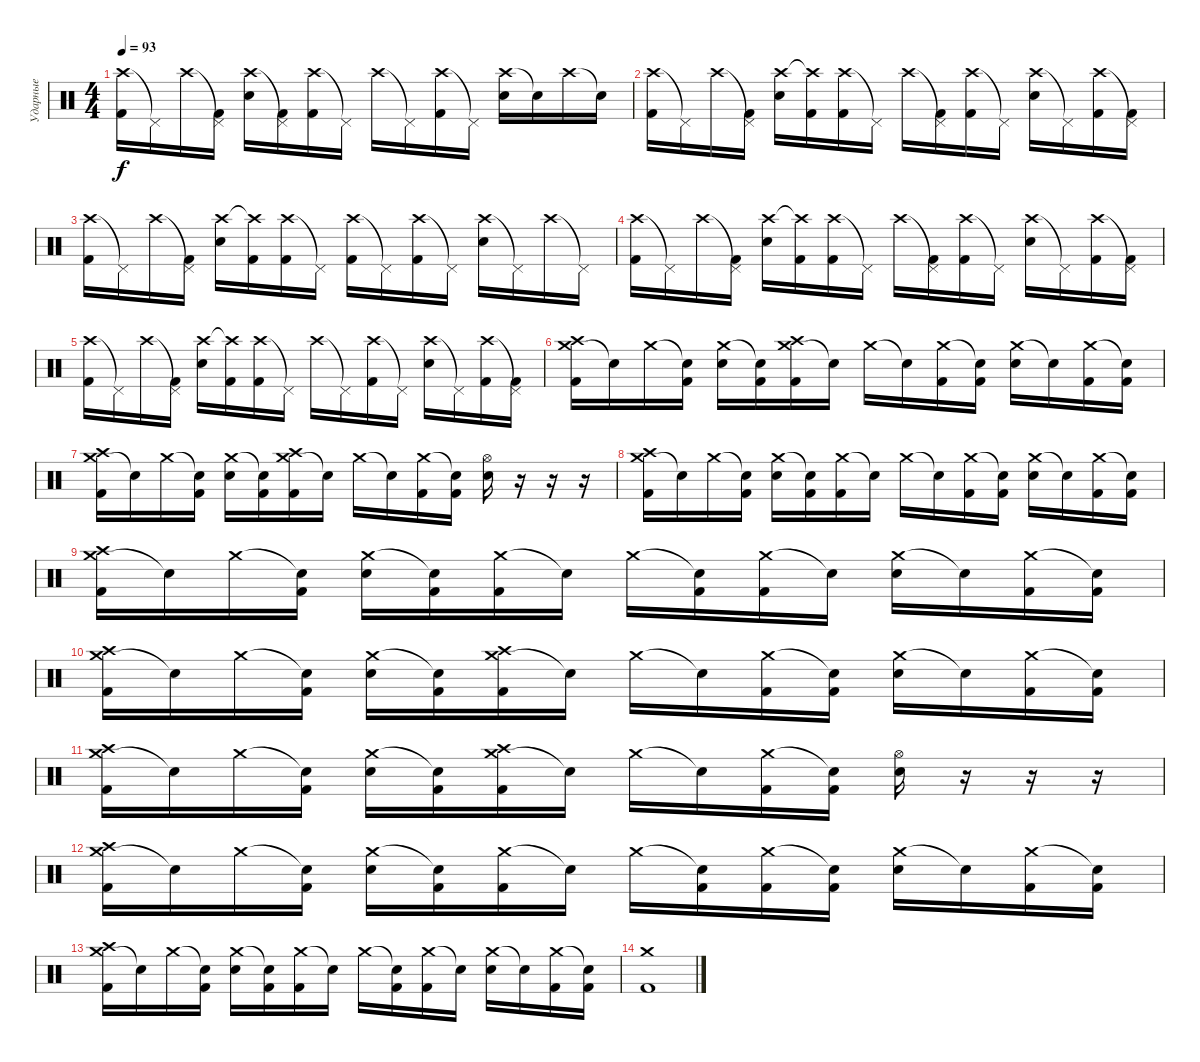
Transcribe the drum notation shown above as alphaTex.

\track ("Ударные" "Ударные") {instrument percussion}
\staff {score}
\articulation defaults
\ts (4 4)
\tempo 93
\clef neutral
\ks c
("Crash high (hit)" "Kick (hit) 2").16{dy f} "Pedal Hi-Hat (hit)"{t}.16 "Crash high (hit)".16 ("Pedal Hi-Hat (hit)"{t} "Kick (hit) 2").16 ("Crash high (hit)" "Electric Snare (hit)").16 ("Pedal Hi-Hat (hit)"{t} "Kick (hit) 2").16 ("Crash high (hit)" "Kick (hit) 2").16 "Pedal Hi-Hat (hit)"{t}.16 "Crash high (hit)".16 "Pedal Hi-Hat (hit)"{t}.16 ("Crash high (hit)" "Kick (hit) 2").16 "Pedal Hi-Hat (hit)"{t}.16 ("Crash high (hit)" "Electric Snare (hit)").16 "Snare (hit)"{t}.16 "Crash high (hit)".16 "Snare (hit)"{t}.16 |
("Crash high (hit)" "Kick (hit) 2").16 "Pedal Hi-Hat (hit)"{t}.16 "Crash high (hit)".16 ("Pedal Hi-Hat (hit)"{t} "Kick (hit) 2").16 ("Crash high (hit)" "Electric Snare (hit)").16 ("Crash high (hit)"{t} "Kick (hit) 2").16 ("Crash high (hit)" "Kick (hit) 2").16 "Pedal Hi-Hat (hit)"{t}.16 "Crash high (hit)".16 ("Pedal Hi-Hat (hit)"{t} "Kick (hit) 2").16 ("Crash high (hit)" "Kick (hit) 2").16 "Pedal Hi-Hat (hit)"{t}.16 ("Crash high (hit)" "Electric Snare (hit)").16 "Pedal Hi-Hat (hit)"{t}.16 ("Crash high (hit)" "Kick (hit) 2").16 ("Pedal Hi-Hat (hit)"{t} "Kick (hit) 2").16 |
("Crash high (hit)" "Kick (hit) 2").16 "Pedal Hi-Hat (hit)"{t}.16 "Crash high (hit)".16 ("Pedal Hi-Hat (hit)"{t} "Kick (hit) 2").16 ("Crash high (hit)" "Electric Snare (hit)").16 ("Crash high (hit)"{t} "Kick (hit) 2").16 ("Crash high (hit)" "Kick (hit) 2").16 "Pedal Hi-Hat (hit)"{t}.16 ("Crash high (hit)" "Kick (hit) 2").16 "Pedal Hi-Hat (hit)"{t}.16 ("Crash high (hit)" "Kick (hit) 2").16 "Pedal Hi-Hat (hit)"{t}.16 ("Crash high (hit)" "Electric Snare (hit)").16 "Pedal Hi-Hat (hit)"{t}.16 "Crash high (hit)".16 "Pedal Hi-Hat (hit)"{t}.16 |
("Crash high (hit)" "Kick (hit) 2").16 "Pedal Hi-Hat (hit)"{t}.16 "Crash high (hit)".16 ("Pedal Hi-Hat (hit)"{t} "Kick (hit) 2").16 ("Crash high (hit)" "Electric Snare (hit)").16 ("Crash high (hit)"{t} "Kick (hit) 2").16 ("Crash high (hit)" "Kick (hit) 2").16 "Pedal Hi-Hat (hit)"{t}.16 "Crash high (hit)".16 ("Pedal Hi-Hat (hit)"{t} "Kick (hit) 2").16 ("Crash high (hit)" "Kick (hit) 2").16 "Pedal Hi-Hat (hit)"{t}.16 ("Crash high (hit)" "Electric Snare (hit)").16 "Pedal Hi-Hat (hit)"{t}.16 ("Crash high (hit)" "Kick (hit) 2").16 ("Pedal Hi-Hat (hit)"{t} "Kick (hit) 2").16 |
("Crash high (hit)" "Kick (hit) 2").16 "Pedal Hi-Hat (hit)"{t}.16 "Crash high (hit)".16 ("Pedal Hi-Hat (hit)"{t} "Kick (hit) 2").16 ("Crash high (hit)" "Electric Snare (hit)").16 ("Crash high (hit)"{t} "Kick (hit) 2").16 ("Crash high (hit)" "Kick (hit) 2").16 "Pedal Hi-Hat (hit)"{t}.16 "Crash high (hit)".16 "Pedal Hi-Hat (hit)"{t}.16 ("Crash high (hit)" "Kick (hit) 2").16 "Pedal Hi-Hat (hit)"{t}.16 ("Crash high (hit)" "Electric Snare (hit)").16 "Pedal Hi-Hat (hit)"{t}.16 ("Crash high (hit)" "Kick (hit) 2").16 ("Pedal Hi-Hat (hit)"{t} "Kick (hit) 2").16 |
("Crash medium (hit)" "Crash high (hit)" "Kick (hit) 2").16 "Snare (hit)"{t}.16 "Crash medium (hit)".16 ("Snare (hit)"{t} "Kick (hit) 2").16 ("Crash medium (hit)" "Electric Snare (hit)").16 ("Snare (hit)"{t} "Kick (hit) 2").16 ("Crash medium (hit)" "Crash high (hit)" "Kick (hit) 2").16 "Snare (hit)"{t}.16 "Crash medium (hit)".16 "Snare (hit)"{t}.16 ("Crash medium (hit)" "Kick (hit) 2").16 ("Snare (hit)"{t} "Kick (hit) 2").16 ("Crash medium (hit)" "Electric Snare (hit)").16 "Snare (hit)"{t}.16 ("Crash medium (hit)" "Kick (hit) 2").16 ("Snare (hit)"{t} "Kick (hit) 2").16 |
("Crash medium (hit)" "Crash high (hit)" "Kick (hit) 2").16 "Snare (hit)"{t}.16 "Crash medium (hit)".16 ("Snare (hit)"{t} "Kick (hit) 2").16 ("Crash medium (hit)" "Electric Snare (hit)").16 ("Snare (hit)"{t} "Kick (hit) 2").16 ("Crash medium (hit)" "Crash high (hit)" "Kick (hit) 2").16 "Snare (hit)"{t}.16 "Crash medium (hit)".16 "Snare (hit)"{t}.16 ("Crash medium (hit)" "Kick (hit) 2").16 ("Snare (hit)"{t} "Kick (hit) 2").16 ("Hi-Hat (open)" "Electric Snare (hit)").16 r.16 r.16 r.16 |
("Crash medium (hit)" "Crash high (hit)" "Kick (hit) 2").16 "Snare (hit)"{t}.16 "Crash medium (hit)".16 ("Snare (hit)"{t} "Kick (hit) 2").16 ("Crash medium (hit)" "Electric Snare (hit)").16 ("Snare (hit)"{t} "Kick (hit) 2").16 ("Crash medium (hit)" "Kick (hit) 2").16 "Snare (hit)"{t}.16 "Crash medium (hit)".16 "Snare (hit)"{t}.16 ("Crash medium (hit)" "Kick (hit) 2").16 ("Snare (hit)"{t} "Kick (hit) 2").16 ("Crash medium (hit)" "Electric Snare (hit)").16 "Snare (hit)"{t}.16 ("Crash medium (hit)" "Kick (hit) 2").16 ("Snare (hit)"{t} "Kick (hit) 2").16 |
("Crash medium (hit)" "Crash high (hit)" "Kick (hit) 2").16 "Snare (hit)"{t}.16 "Crash medium (hit)".16 ("Snare (hit)"{t} "Kick (hit) 2").16 ("Crash medium (hit)" "Electric Snare (hit)").16 ("Snare (hit)"{t} "Kick (hit) 2").16 ("Crash medium (hit)" "Kick (hit) 2").16 "Snare (hit)"{t}.16 "Crash medium (hit)".16 ("Snare (hit)"{t} "Kick (hit) 2").16 ("Crash medium (hit)" "Kick (hit) 2").16 "Snare (hit)"{t}.16 ("Crash medium (hit)" "Electric Snare (hit)").16 "Snare (hit)"{t}.16 ("Crash medium (hit)" "Kick (hit) 2").16 ("Snare (hit)"{t} "Kick (hit) 2").16 |
("Crash medium (hit)" "Crash high (hit)" "Kick (hit) 2").16 "Snare (hit)"{t}.16 "Crash medium (hit)".16 ("Snare (hit)"{t} "Kick (hit) 2").16 ("Crash medium (hit)" "Electric Snare (hit)").16 ("Snare (hit)"{t} "Kick (hit) 2").16 ("Crash medium (hit)" "Crash high (hit)" "Kick (hit) 2").16 "Snare (hit)"{t}.16 "Crash medium (hit)".16 "Snare (hit)"{t}.16 ("Crash medium (hit)" "Kick (hit) 2").16 ("Snare (hit)"{t} "Kick (hit) 2").16 ("Crash medium (hit)" "Electric Snare (hit)").16 "Snare (hit)"{t}.16 ("Crash medium (hit)" "Kick (hit) 2").16 ("Snare (hit)"{t} "Kick (hit) 2").16 |
("Crash medium (hit)" "Crash high (hit)" "Kick (hit) 2").16 "Snare (hit)"{t}.16 "Crash medium (hit)".16 ("Snare (hit)"{t} "Kick (hit) 2").16 ("Crash medium (hit)" "Electric Snare (hit)").16 ("Snare (hit)"{t} "Kick (hit) 2").16 ("Crash medium (hit)" "Crash high (hit)" "Kick (hit) 2").16 "Snare (hit)"{t}.16 "Crash medium (hit)".16 "Snare (hit)"{t}.16 ("Crash medium (hit)" "Kick (hit) 2").16 ("Snare (hit)"{t} "Kick (hit) 2").16 ("Hi-Hat (open)" "Electric Snare (hit)").16 r.16 r.16 r.16 |
("Crash medium (hit)" "Crash high (hit)" "Kick (hit) 2").16 "Snare (hit)"{t}.16 "Crash medium (hit)".16 ("Snare (hit)"{t} "Kick (hit) 2").16 ("Crash medium (hit)" "Electric Snare (hit)").16 ("Snare (hit)"{t} "Kick (hit) 2").16 ("Crash medium (hit)" "Kick (hit) 2").16 "Snare (hit)"{t}.16 "Crash medium (hit)".16 ("Snare (hit)"{t} "Kick (hit) 2").16 ("Crash medium (hit)" "Kick (hit) 2").16 ("Snare (hit)"{t} "Kick (hit) 2").16 ("Crash medium (hit)" "Electric Snare (hit)").16 "Snare (hit)"{t}.16 ("Crash medium (hit)" "Kick (hit) 2").16 ("Snare (hit)"{t} "Kick (hit) 2").16 |
("Crash medium (hit)" "Crash high (hit)" "Kick (hit) 2").16 "Snare (hit)"{t}.16 "Crash medium (hit)".16 ("Snare (hit)"{t} "Kick (hit) 2").16 ("Crash medium (hit)" "Electric Snare (hit)").16 ("Snare (hit)"{t} "Kick (hit) 2").16 ("Crash medium (hit)" "Kick (hit) 2").16 "Snare (hit)"{t}.16 "Crash medium (hit)".16 ("Snare (hit)"{t} "Kick (hit) 2").16 ("Crash medium (hit)" "Kick (hit) 2").16 "Snare (hit)"{t}.16 ("Crash medium (hit)" "Electric Snare (hit)").16 "Snare (hit)"{t}.16 ("Crash medium (hit)" "Kick (hit) 2").16 ("Snare (hit)"{t} "Kick (hit) 2").16 |
("Crash medium (hit)" "Kick (hit) 2").1
